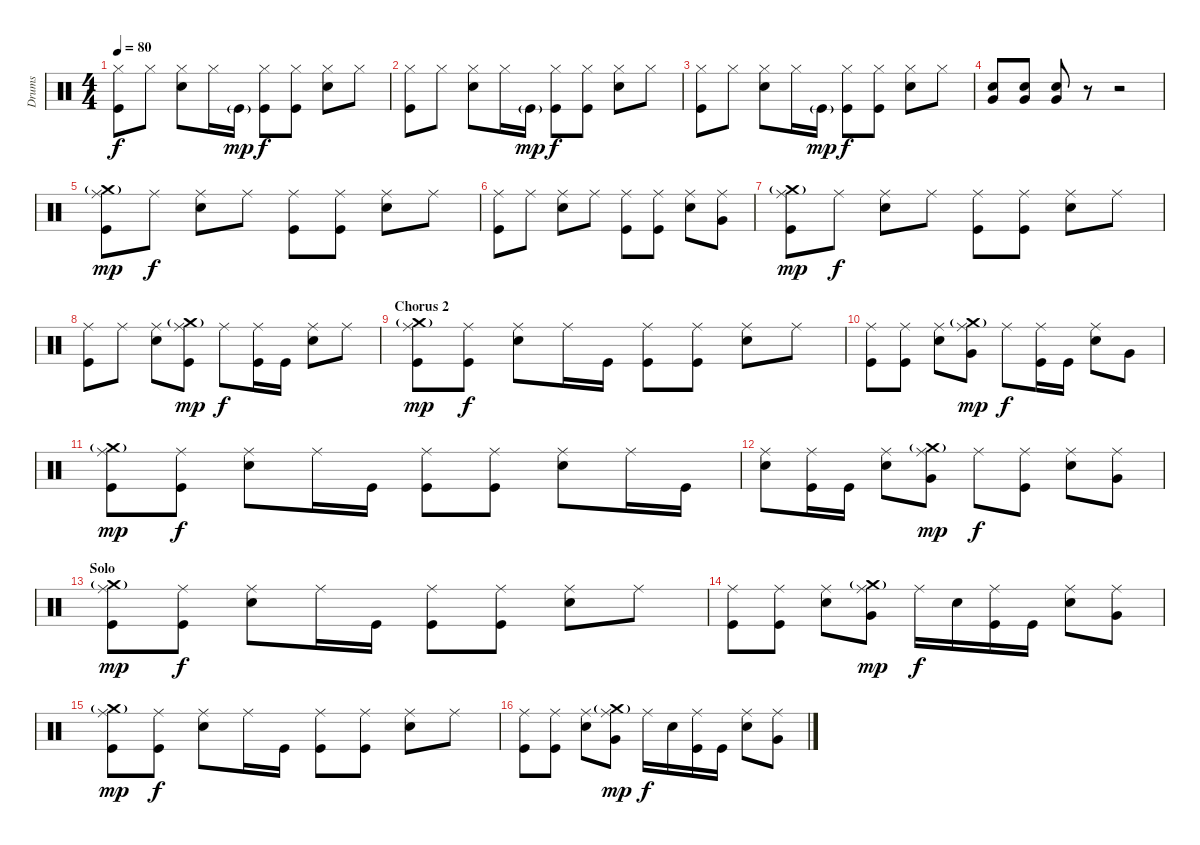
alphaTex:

\track ("Drums" "Drums") {instrument percussion}
\staff {score}
\articulation defaults
\ts (4 4)
\tempo 80
\clef neutral
\ks c
("Hi-Hat (closed)" "Kick (hit)").8{dy f} "Hi-Hat (closed)".8 ("Hi-Hat (closed)" "Snare (hit) 2").8 "Hi-Hat (closed)".16 "Kick (hit)"{g}.16{dy mp} ("Hi-Hat (closed)" "Kick (hit)").8{dy f} ("Hi-Hat (closed)" "Kick (hit)").8 ("Hi-Hat (closed)" "Snare (hit) 2").8 "Hi-Hat (closed)".8 |
("Hi-Hat (closed)" "Kick (hit)").8 "Hi-Hat (closed)".8 ("Hi-Hat (closed)" "Snare (hit) 2").8 "Hi-Hat (closed)".16 "Kick (hit)"{g}.16{dy mp} ("Hi-Hat (closed)" "Kick (hit)").8{dy f} ("Hi-Hat (closed)" "Kick (hit)").8 ("Hi-Hat (closed)" "Snare (hit) 2").8 "Hi-Hat (closed)".8 |
("Hi-Hat (closed)" "Kick (hit)").8 "Hi-Hat (closed)".8 ("Hi-Hat (closed)" "Snare (hit) 2").8 "Hi-Hat (closed)".16 "Kick (hit)"{g}.16{dy mp} ("Hi-Hat (closed)" "Kick (hit)").8{dy f} ("Hi-Hat (closed)" "Kick (hit)").8 ("Hi-Hat (closed)" "Snare (hit) 2").8 "Hi-Hat (closed)".8 |
("Snare (hit) 2" "Very Low Tom (hit)").8 ("Snare (hit) 2" "Very Low Tom (hit)").8 ("Snare (hit) 2" "Very Low Tom (hit)").8 r.8 r.2 |
("Ride (middle)" "Crash medium (hit)"{g} "Kick (hit)").8{dy mp} "Ride (middle)".8{dy f} ("Ride (middle)" "Snare (hit) 2").8 "Ride (middle)".8 ("Ride (middle)" "Kick (hit)").8 ("Ride (middle)" "Kick (hit)").8 ("Ride (middle)" "Snare (hit) 2").8 "Ride (middle)".8 |
("Ride (middle)" "Kick (hit)").8 "Ride (middle)".8 ("Ride (middle)" "Snare (hit) 2").8 "Ride (middle)".8 ("Ride (middle)" "Kick (hit)").8 ("Ride (middle)" "Kick (hit)").8 ("Ride (middle)" "Snare (hit) 2").8 ("Ride (middle)" "Very Low Tom (hit)").8 |
("Ride (middle)" "Crash medium (hit)"{g} "Kick (hit)").8{dy mp} "Ride (middle)".8{dy f} ("Ride (middle)" "Snare (hit) 2").8 "Ride (middle)".8 ("Ride (middle)" "Kick (hit)").8 ("Ride (middle)" "Kick (hit)").8 ("Ride (middle)" "Snare (hit) 2").8 "Ride (middle)".8 |
("Ride (middle)" "Kick (hit)").8 "Ride (middle)".8 ("Ride (middle)" "Snare (hit) 2").8 ("Ride (middle)" "Crash medium (hit)"{g} "Kick (hit)").8{dy mp} "Ride (middle)".8{dy f} ("Ride (middle)" "Kick (hit)").16 "Kick (hit)".16 ("Ride (middle)" "Snare (hit) 2").8 "Ride (middle)".8 |
\section ("" "Chorus 2")
("Ride (middle)" "Crash medium (hit)"{g} "Kick (hit)").8{dy mp} ("Ride (middle)" "Kick (hit)").8{dy f} ("Ride (middle)" "Snare (hit) 2").8 "Ride (middle)".16 "Kick (hit)".16 ("Ride (middle)" "Kick (hit)").8 ("Ride (middle)" "Kick (hit)").8 ("Ride (middle)" "Snare (hit) 2").8 "Ride (middle)".8 |
("Ride (middle)" "Kick (hit)").8 ("Ride (middle)" "Kick (hit)").8 ("Ride (middle)" "Snare (hit) 2").8 ("Ride (middle)" "Crash medium (hit)"{g} "Very Low Tom (hit)").8{dy mp} "Ride (middle)".8{dy f} ("Ride (middle)" "Kick (hit)").16 "Kick (hit)".16 ("Ride (middle)" "Snare (hit) 2").8 "Very Low Tom (hit)".8 |
("Ride (middle)" "Crash medium (hit)"{g} "Kick (hit)").8{dy mp} ("Ride (middle)" "Kick (hit)").8{dy f} ("Ride (middle)" "Snare (hit) 2").8 "Ride (middle)".16 "Kick (hit)".16 ("Ride (middle)" "Kick (hit)").8 ("Ride (middle)" "Kick (hit)").8 ("Ride (middle)" "Snare (hit) 2").8 "Ride (middle)".16 "Kick (hit)".16 |
("Ride (middle)" "Snare (hit) 2").8 ("Ride (middle)" "Kick (hit)").16 "Kick (hit)".16 ("Ride (middle)" "Snare (hit) 2").8 ("Ride (middle)" "Crash medium (hit)"{g} "Very Low Tom (hit)").8{dy mp} "Ride (middle)".8{dy f} ("Ride (middle)" "Kick (hit)").8 ("Ride (middle)" "Snare (hit) 2").8 ("Ride (middle)" "Very Low Tom (hit)").8 |
\section ("" "Solo")
("Ride (middle)" "Crash medium (hit)"{g} "Kick (hit)").8{dy mp} ("Ride (middle)" "Kick (hit)").8{dy f} ("Ride (middle)" "Snare (hit) 2").8 "Ride (middle)".16 "Kick (hit)".16 ("Ride (middle)" "Kick (hit)").8 ("Ride (middle)" "Kick (hit)").8 ("Ride (middle)" "Snare (hit) 2").8 "Ride (middle)".8 |
("Ride (middle)" "Kick (hit)").8 ("Ride (middle)" "Kick (hit)").8 ("Ride (middle)" "Snare (hit) 2").8 ("Ride (middle)" "Crash medium (hit)"{g} "Very Low Tom (hit)").8{dy mp} "Ride (middle)".16{dy f} "Snare (hit) 2".16 ("Ride (middle)" "Kick (hit)").16 "Kick (hit)".16 ("Ride (middle)" "Snare (hit) 2").8 ("Ride (middle)" "Very Low Tom (hit)").8 |
("Ride (middle)" "Crash medium (hit)"{g} "Kick (hit)").8{dy mp} ("Ride (middle)" "Kick (hit)").8{dy f} ("Ride (middle)" "Snare (hit) 2").8 "Ride (middle)".16 "Kick (hit)".16 ("Ride (middle)" "Kick (hit)").8 ("Ride (middle)" "Kick (hit)").8 ("Ride (middle)" "Snare (hit) 2").8 "Ride (middle)".8 |
("Ride (middle)" "Kick (hit)").8 ("Ride (middle)" "Kick (hit)").8 ("Ride (middle)" "Snare (hit) 2").8 ("Ride (middle)" "Crash medium (hit)"{g} "Very Low Tom (hit)").8{dy mp} "Ride (middle)".16{dy f} "Snare (hit) 2".16 ("Ride (middle)" "Kick (hit)").16 "Kick (hit)".16 ("Ride (middle)" "Snare (hit) 2").8 ("Ride (middle)" "Very Low Tom (hit)").8
